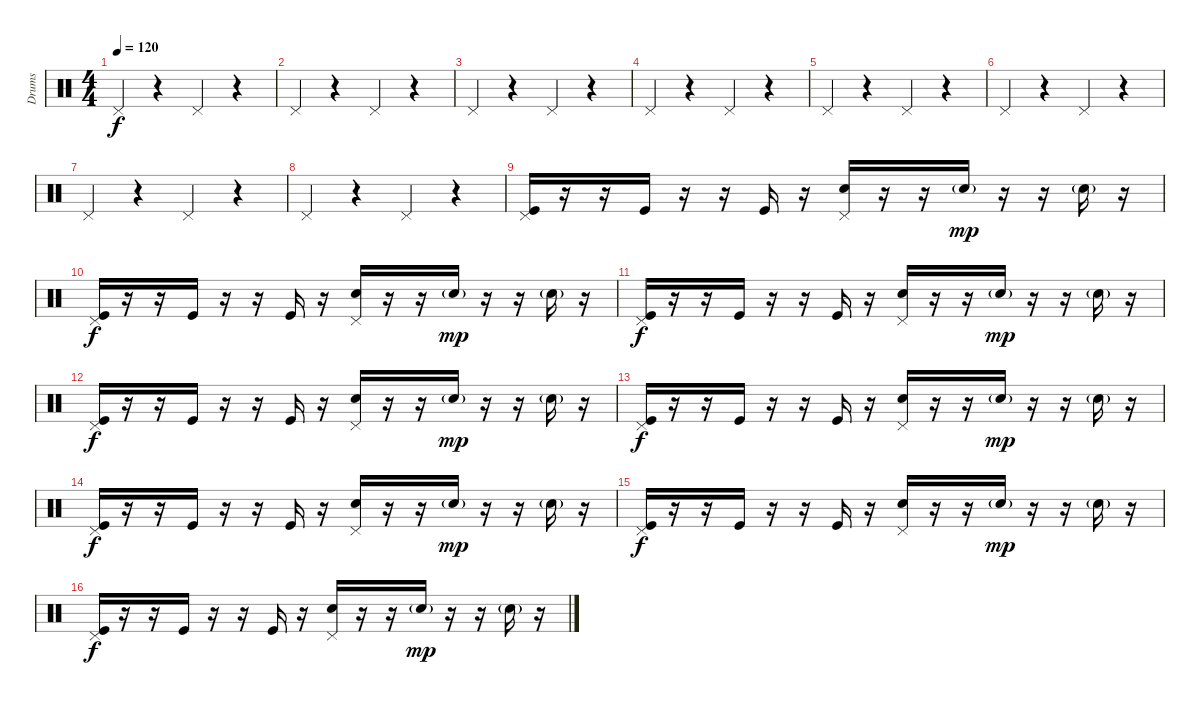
\track ("Drums" "Drums") {instrument percussion}
\staff {score}
\articulation defaults
\ts (4 4)
\tempo 120
\clef neutral
\ks c "Pedal Hi-Hat (hit)".4{dy f}
r.4 "Pedal Hi-Hat (hit)".4 r.4 |
"Pedal Hi-Hat (hit)".4 r.4 "Pedal Hi-Hat (hit)".4 r.4 |
"Pedal Hi-Hat (hit)".4 r.4 "Pedal Hi-Hat (hit)".4 r.4 |
"Pedal Hi-Hat (hit)".4 r.4 "Pedal Hi-Hat (hit)".4 r.4 |
"Pedal Hi-Hat (hit)".4 r.4 "Pedal Hi-Hat (hit)".4 r.4 |
"Pedal Hi-Hat (hit)".4 r.4 "Pedal Hi-Hat (hit)".4 r.4 |
"Pedal Hi-Hat (hit)".4 r.4 "Pedal Hi-Hat (hit)".4 r.4 |
"Pedal Hi-Hat (hit)".4 r.4 "Pedal Hi-Hat (hit)".4 r.4 |
("Pedal Hi-Hat (hit)" "Kick (hit)").16 r.16 r.16 "Kick (hit)".16 r.16 r.16 "Kick (hit)".16 r.16 ("Pedal Hi-Hat (hit)" "Electric Snare (hit)").16 r.16 r.16 "Electric Snare (hit)"{g}.16{dy mp} r.16 r.16 "Electric Snare (hit)"{g}.16 r.16 |
("Pedal Hi-Hat (hit)" "Kick (hit)").16{dy f} r.16 r.16 "Kick (hit)".16 r.16 r.16 "Kick (hit)".16 r.16 ("Pedal Hi-Hat (hit)" "Electric Snare (hit)").16 r.16 r.16 "Electric Snare (hit)"{g}.16{dy mp} r.16 r.16 "Electric Snare (hit)"{g}.16 r.16 |
("Pedal Hi-Hat (hit)" "Kick (hit)").16{dy f} r.16 r.16 "Kick (hit)".16 r.16 r.16 "Kick (hit)".16 r.16 ("Pedal Hi-Hat (hit)" "Electric Snare (hit)").16 r.16 r.16 "Electric Snare (hit)"{g}.16{dy mp} r.16 r.16 "Electric Snare (hit)"{g}.16 r.16 |
("Pedal Hi-Hat (hit)" "Kick (hit)").16{dy f} r.16 r.16 "Kick (hit)".16 r.16 r.16 "Kick (hit)".16 r.16 ("Pedal Hi-Hat (hit)" "Electric Snare (hit)").16 r.16 r.16 "Electric Snare (hit)"{g}.16{dy mp} r.16 r.16 "Electric Snare (hit)"{g}.16 r.16 |
("Pedal Hi-Hat (hit)" "Kick (hit)").16{dy f} r.16 r.16 "Kick (hit)".16 r.16 r.16 "Kick (hit)".16 r.16 ("Pedal Hi-Hat (hit)" "Electric Snare (hit)").16 r.16 r.16 "Electric Snare (hit)"{g}.16{dy mp} r.16 r.16 "Electric Snare (hit)"{g}.16 r.16 |
("Pedal Hi-Hat (hit)" "Kick (hit)").16{dy f} r.16 r.16 "Kick (hit)".16 r.16 r.16 "Kick (hit)".16 r.16 ("Pedal Hi-Hat (hit)" "Electric Snare (hit)").16 r.16 r.16 "Electric Snare (hit)"{g}.16{dy mp} r.16 r.16 "Electric Snare (hit)"{g}.16 r.16 |
("Pedal Hi-Hat (hit)" "Kick (hit)").16{dy f} r.16 r.16 "Kick (hit)".16 r.16 r.16 "Kick (hit)".16 r.16 ("Pedal Hi-Hat (hit)" "Electric Snare (hit)").16 r.16 r.16 "Electric Snare (hit)"{g}.16{dy mp} r.16 r.16 "Electric Snare (hit)"{g}.16 r.16 |
("Pedal Hi-Hat (hit)" "Kick (hit)").16{dy f} r.16 r.16 "Kick (hit)".16 r.16 r.16 "Kick (hit)".16 r.16 ("Pedal Hi-Hat (hit)" "Electric Snare (hit)").16 r.16 r.16 "Electric Snare (hit)"{g}.16{dy mp} r.16 r.16 "Electric Snare (hit)"{g}.16 r.16
